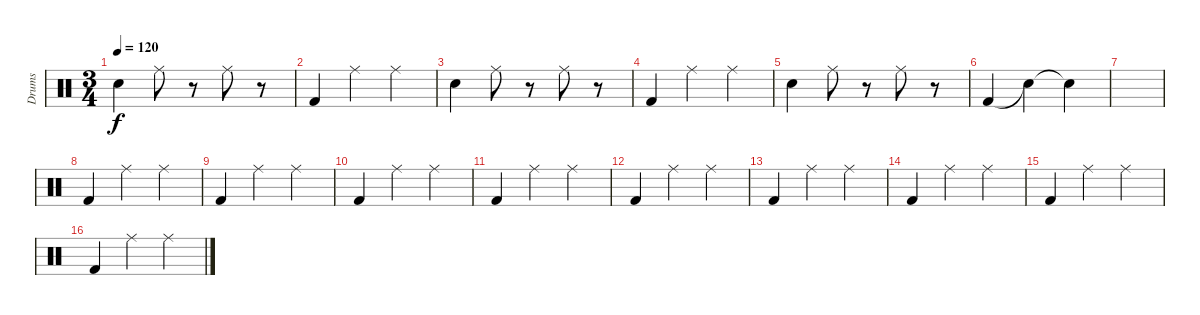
\track ("Drums" "Drums") {instrument percussion}
\staff {score}
\articulation defaults
\ts (3 4)
\tempo 120
\clef neutral
\ks c "Snare (hit) 2".4{dy f} "Ride (middle)".8
r.8 "Ride (middle)".8 r.8 |
"Kick (hit) 2".4 "Ride (middle)".4 "Ride (middle)".4 |
"Snare (hit) 2".4 "Ride (middle)".8 r.8 "Ride (middle)".8 r.8 |
"Kick (hit) 2".4 "Ride (middle)".4 "Ride (middle)".4 |
"Snare (hit) 2".4 "Ride (middle)".8 r.8 "Ride (middle)".8 r.8 |
"Kick (hit) 2".4 "Snare (hit)"{t}.4 "Snare (hit)"{t}.4 |
|
"Kick (hit) 2".4 "Ride (middle)".4 "Ride (middle)".4 |
"Kick (hit) 2".4 "Ride (middle)".4 "Ride (middle)".4 |
"Kick (hit) 2".4 "Ride (middle)".4 "Ride (middle)".4 |
"Kick (hit) 2".4 "Ride (middle)".4 "Ride (middle)".4 |
"Kick (hit) 2".4 "Ride (middle)".4 "Ride (middle)".4 |
"Kick (hit) 2".4 "Ride (middle)".4 "Ride (middle)".4 |
"Kick (hit) 2".4 "Ride (middle)".4 "Ride (middle)".4 |
"Kick (hit) 2".4 "Ride (middle)".4 "Ride (middle)".4 |
"Kick (hit) 2".4 "Ride (middle)".4 "Ride (middle)".4
